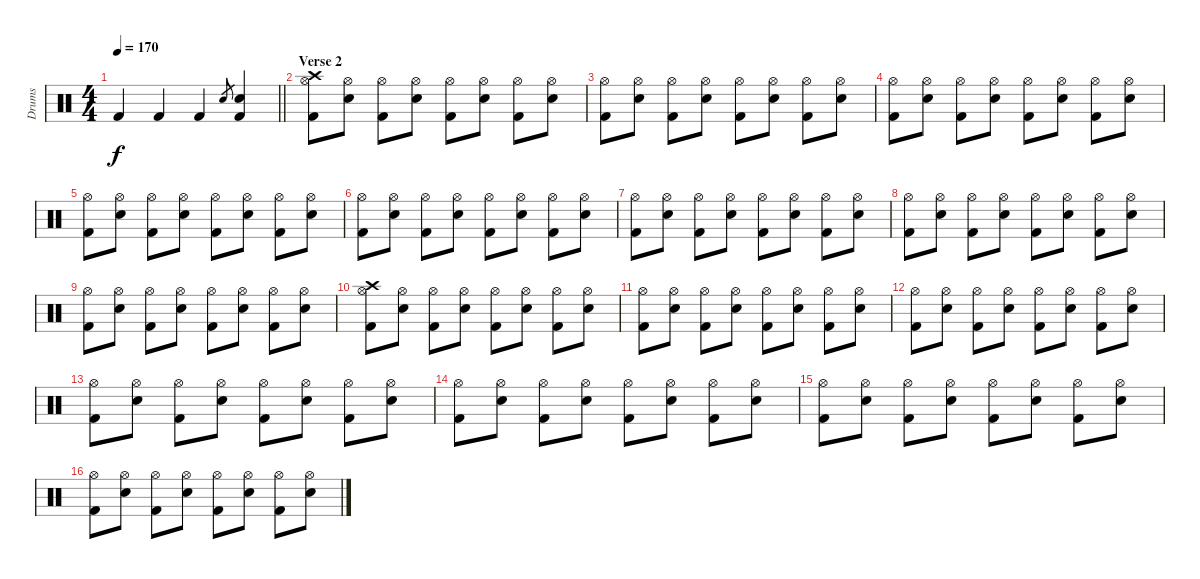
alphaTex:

\track ("Drums" "Drums") {instrument percussion}
\staff {score}
\articulation defaults
\ts (4 4)
\tempo 170
\clef neutral
\barLineRight lightlight
\ks c "Kick (hit) 2".4{dy f} "Kick (hit) 2".4 "Kick (hit) 2".4 "Snare (hit) 2".8{gr}
("Snare (hit) 2" "Kick (hit) 2").4 |
\section ("" "Verse 2")
("Hi-Hat (open)" "Crash high (hit)" "Kick (hit) 2").8 ("Hi-Hat (open)" "Snare (hit) 2").8 ("Hi-Hat (open)" "Kick (hit) 2").8 ("Hi-Hat (open)" "Snare (hit) 2").8 ("Hi-Hat (open)" "Kick (hit) 2").8 ("Hi-Hat (open)" "Snare (hit) 2").8 ("Hi-Hat (open)" "Kick (hit) 2").8 ("Hi-Hat (open)" "Snare (hit) 2").8 |
("Hi-Hat (open)" "Kick (hit) 2").8 ("Hi-Hat (open)" "Snare (hit) 2").8 ("Hi-Hat (open)" "Kick (hit) 2").8 ("Hi-Hat (open)" "Snare (hit) 2").8 ("Hi-Hat (open)" "Kick (hit) 2").8 ("Hi-Hat (open)" "Snare (hit) 2").8 ("Hi-Hat (open)" "Kick (hit) 2").8 ("Hi-Hat (open)" "Snare (hit) 2").8 |
("Hi-Hat (open)" "Kick (hit) 2").8 ("Hi-Hat (open)" "Snare (hit) 2").8 ("Hi-Hat (open)" "Kick (hit) 2").8 ("Hi-Hat (open)" "Snare (hit) 2").8 ("Hi-Hat (open)" "Kick (hit) 2").8 ("Hi-Hat (open)" "Snare (hit) 2").8 ("Hi-Hat (open)" "Kick (hit) 2").8 ("Hi-Hat (open)" "Snare (hit) 2").8 |
("Hi-Hat (open)" "Kick (hit) 2").8 ("Hi-Hat (open)" "Snare (hit) 2").8 ("Hi-Hat (open)" "Kick (hit) 2").8 ("Hi-Hat (open)" "Snare (hit) 2").8 ("Hi-Hat (open)" "Kick (hit) 2").8 ("Hi-Hat (open)" "Snare (hit) 2").8 ("Hi-Hat (open)" "Kick (hit) 2").8 ("Hi-Hat (open)" "Snare (hit) 2").8 |
("Hi-Hat (open)" "Kick (hit) 2").8 ("Hi-Hat (open)" "Snare (hit) 2").8 ("Hi-Hat (open)" "Kick (hit) 2").8 ("Hi-Hat (open)" "Snare (hit) 2").8 ("Hi-Hat (open)" "Kick (hit) 2").8 ("Hi-Hat (open)" "Snare (hit) 2").8 ("Hi-Hat (open)" "Kick (hit) 2").8 ("Hi-Hat (open)" "Snare (hit) 2").8 |
("Hi-Hat (open)" "Kick (hit) 2").8 ("Hi-Hat (open)" "Snare (hit) 2").8 ("Hi-Hat (open)" "Kick (hit) 2").8 ("Hi-Hat (open)" "Snare (hit) 2").8 ("Hi-Hat (open)" "Kick (hit) 2").8 ("Hi-Hat (open)" "Snare (hit) 2").8 ("Hi-Hat (open)" "Kick (hit) 2").8 ("Hi-Hat (open)" "Snare (hit) 2").8 |
("Hi-Hat (open)" "Kick (hit) 2").8 ("Hi-Hat (open)" "Snare (hit) 2").8 ("Hi-Hat (open)" "Kick (hit) 2").8 ("Hi-Hat (open)" "Snare (hit) 2").8 ("Hi-Hat (open)" "Kick (hit) 2").8 ("Hi-Hat (open)" "Snare (hit) 2").8 ("Hi-Hat (open)" "Kick (hit) 2").8 ("Hi-Hat (open)" "Snare (hit) 2").8 |
("Hi-Hat (open)" "Kick (hit) 2").8 ("Hi-Hat (open)" "Snare (hit) 2").8 ("Hi-Hat (open)" "Kick (hit) 2").8 ("Hi-Hat (open)" "Snare (hit) 2").8 ("Hi-Hat (open)" "Kick (hit) 2").8 ("Hi-Hat (open)" "Snare (hit) 2").8 ("Hi-Hat (open)" "Kick (hit) 2").8 ("Hi-Hat (open)" "Snare (hit) 2").8 |
("Hi-Hat (open)" "Crash high (hit)" "Kick (hit) 2").8 ("Hi-Hat (open)" "Snare (hit) 2").8 ("Hi-Hat (open)" "Kick (hit) 2").8 ("Hi-Hat (open)" "Snare (hit) 2").8 ("Hi-Hat (open)" "Kick (hit) 2").8 ("Hi-Hat (open)" "Snare (hit) 2").8 ("Hi-Hat (open)" "Kick (hit) 2").8 ("Hi-Hat (open)" "Snare (hit) 2").8 |
("Hi-Hat (open)" "Kick (hit) 2").8 ("Hi-Hat (open)" "Snare (hit) 2").8 ("Hi-Hat (open)" "Kick (hit) 2").8 ("Hi-Hat (open)" "Snare (hit) 2").8 ("Hi-Hat (open)" "Kick (hit) 2").8 ("Hi-Hat (open)" "Snare (hit) 2").8 ("Hi-Hat (open)" "Kick (hit) 2").8 ("Hi-Hat (open)" "Snare (hit) 2").8 |
("Hi-Hat (open)" "Kick (hit) 2").8 ("Hi-Hat (open)" "Snare (hit) 2").8 ("Hi-Hat (open)" "Kick (hit) 2").8 ("Hi-Hat (open)" "Snare (hit) 2").8 ("Hi-Hat (open)" "Kick (hit) 2").8 ("Hi-Hat (open)" "Snare (hit) 2").8 ("Hi-Hat (open)" "Kick (hit) 2").8 ("Hi-Hat (open)" "Snare (hit) 2").8 |
("Hi-Hat (open)" "Kick (hit) 2").8 ("Hi-Hat (open)" "Snare (hit) 2").8 ("Hi-Hat (open)" "Kick (hit) 2").8 ("Hi-Hat (open)" "Snare (hit) 2").8 ("Hi-Hat (open)" "Kick (hit) 2").8 ("Hi-Hat (open)" "Snare (hit) 2").8 ("Hi-Hat (open)" "Kick (hit) 2").8 ("Hi-Hat (open)" "Snare (hit) 2").8 |
("Hi-Hat (open)" "Kick (hit) 2").8 ("Hi-Hat (open)" "Snare (hit) 2").8 ("Hi-Hat (open)" "Kick (hit) 2").8 ("Hi-Hat (open)" "Snare (hit) 2").8 ("Hi-Hat (open)" "Kick (hit) 2").8 ("Hi-Hat (open)" "Snare (hit) 2").8 ("Hi-Hat (open)" "Kick (hit) 2").8 ("Hi-Hat (open)" "Snare (hit) 2").8 |
("Hi-Hat (open)" "Kick (hit) 2").8 ("Hi-Hat (open)" "Snare (hit) 2").8 ("Hi-Hat (open)" "Kick (hit) 2").8 ("Hi-Hat (open)" "Snare (hit) 2").8 ("Hi-Hat (open)" "Kick (hit) 2").8 ("Hi-Hat (open)" "Snare (hit) 2").8 ("Hi-Hat (open)" "Kick (hit) 2").8 ("Hi-Hat (open)" "Snare (hit) 2").8 |
("Hi-Hat (open)" "Kick (hit) 2").8 ("Hi-Hat (open)" "Snare (hit) 2").8 ("Hi-Hat (open)" "Kick (hit) 2").8 ("Hi-Hat (open)" "Snare (hit) 2").8 ("Hi-Hat (open)" "Kick (hit) 2").8 ("Hi-Hat (open)" "Snare (hit) 2").8 ("Hi-Hat (open)" "Kick (hit) 2").8 ("Hi-Hat (open)" "Snare (hit) 2").8
